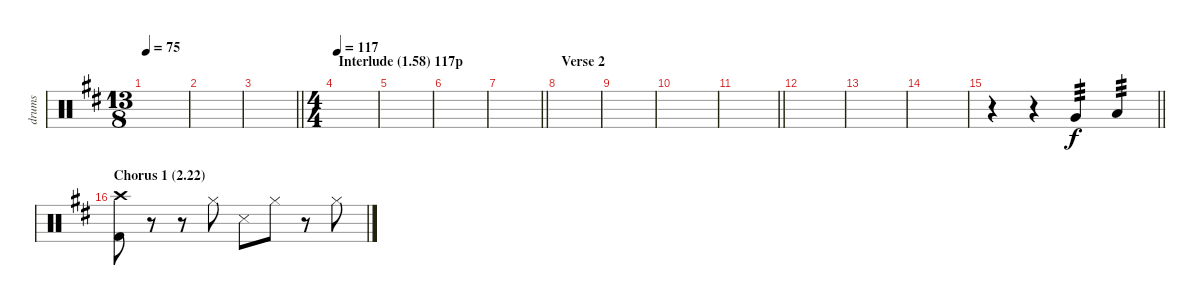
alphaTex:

\track ("drums" "drums") {instrument percussion}
\staff {score}
\articulation defaults
\ts (13 8)
\tempo 75
\clef neutral
\ks d
|
|
\barLineRight lightlight
|
\ts (4 4)
\section ("" "Interlude (1.58) 117p")
\tempo 117
|
|
|
\barLineRight lightlight
|
\section ("" "Verse 2")
|
|
|
\barLineRight lightlight
|
|
|
|
\barLineRight lightlight
r.4 r.4 "Very Low Tom (hit)".4{tp 3} "Low Floor Tom (hit)".4{tp 3} |
\section ("" "Chorus 1 (2.22)")
("Crash high (hit)" "Kick (hit) 2").8 r.8 r.8 "Hi-Hat (closed)".8 "Snare (side stick) 3".8 "Hi-Hat (closed)".8 r.8 "Hi-Hat (closed)".8
